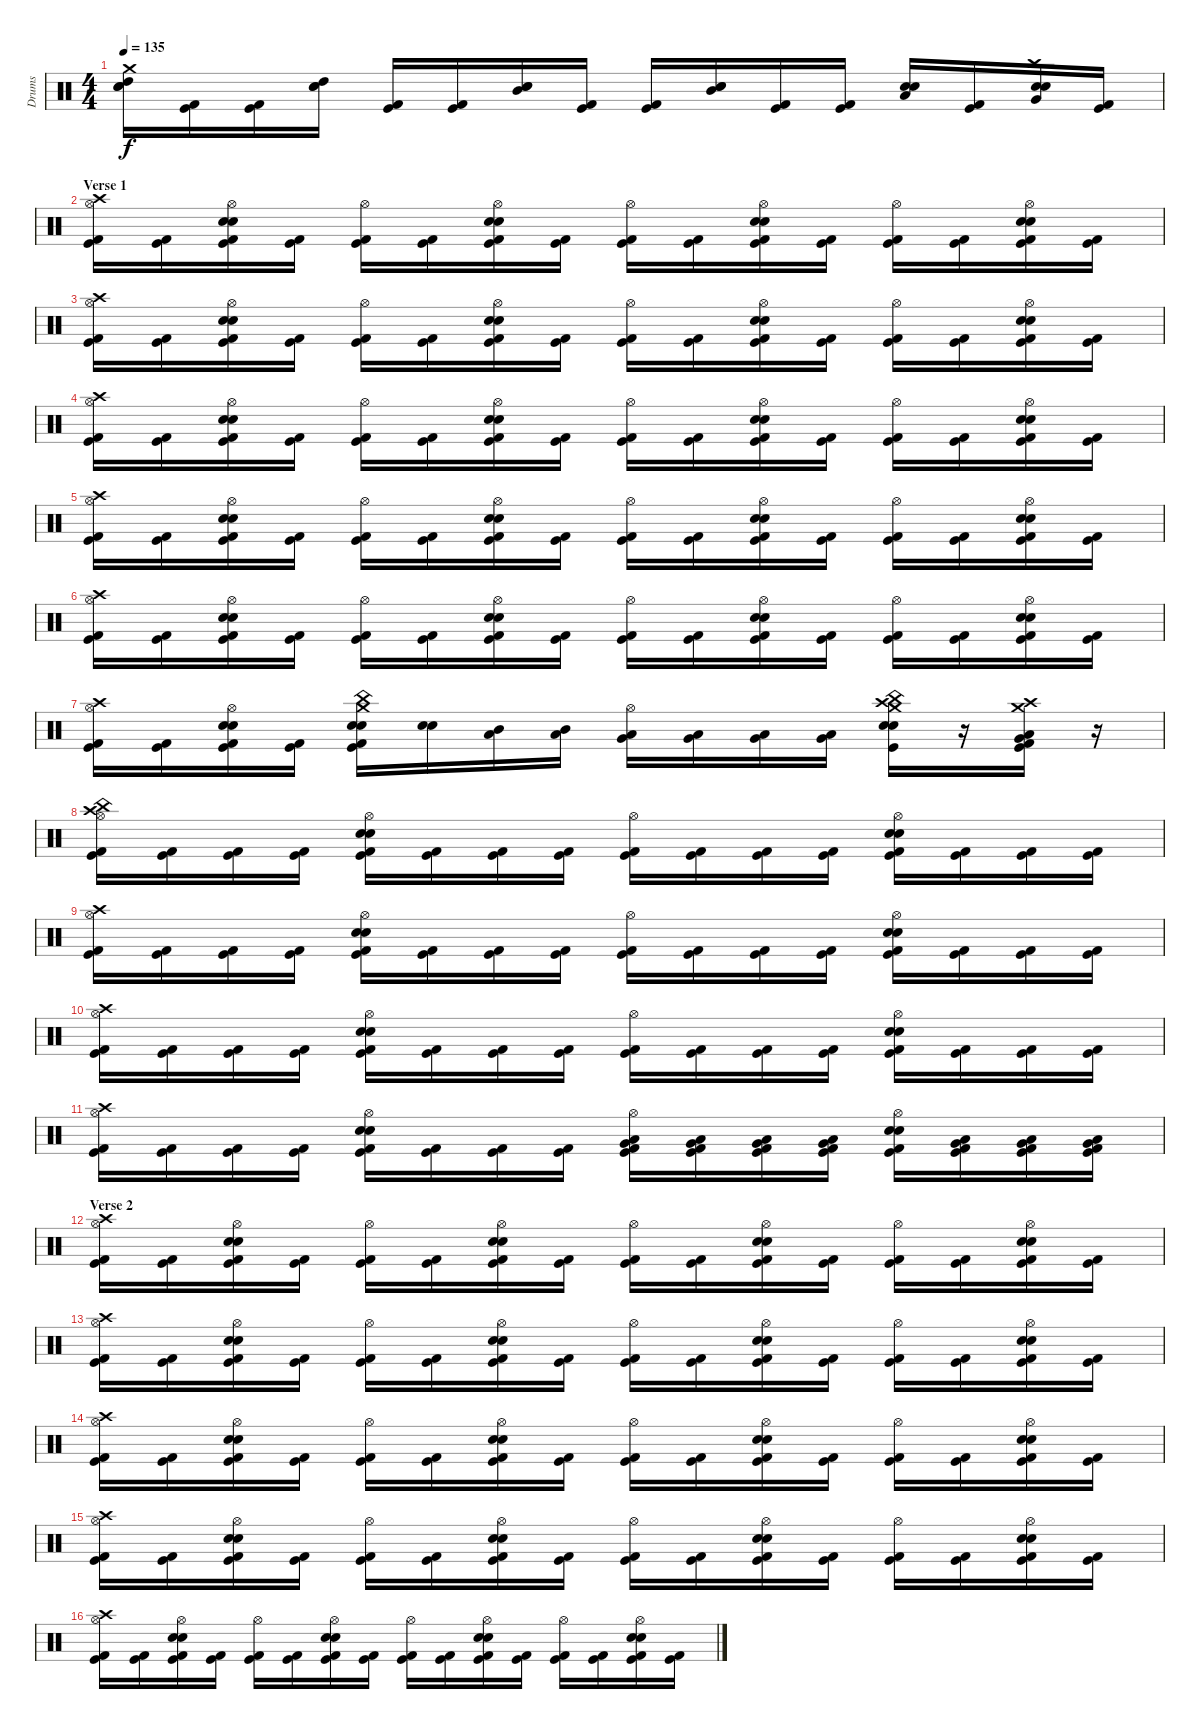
\track ("Drums" "Drums") {instrument percussion}
\staff {score}
\articulation defaults
\ts (4 4)
\tempo 135
\clef neutral
\ks c
("Crash medium (hit)" "High Tom (hit)" "Electric Snare (hit)" "Snare (hit) 2").16{dy f} ("Kick (hit) 2" "Kick (hit)").16 ("Kick (hit) 2" "Kick (hit)").16 ("High Tom (hit)" "Electric Snare (hit)" "Snare (hit) 2").16 ("Kick (hit)" "Kick (hit) 2").16 ("Kick (hit)" "Kick (hit) 2").16 ("Mid Tom (hit)" "Electric Snare (hit)" "Snare (hit) 2").16 ("Kick (hit) 2" "Kick (hit)").16 ("Kick (hit) 2" "Kick (hit)").16 ("Mid Tom (hit)" "Electric Snare (hit)" "Snare (hit) 2").16 ("Kick (hit) 2" "Kick (hit)").16 ("Kick (hit) 2" "Kick (hit)").16 ("Low Tom (hit)" "Electric Snare (hit)" "Snare (hit) 2").16 ("Kick (hit) 2" "Kick (hit)").16 ("Crash high (hit)" "Very Low Tom (hit)" "Electric Snare (hit)" "Snare (hit) 2").16 ("Kick (hit) 2" "Kick (hit)").16 |
\section ("" "Verse 1")
("Crash high (hit)" "Hi-Hat (open)" "Kick (hit) 2" "Kick (hit)").16 ("Kick (hit) 2" "Kick (hit)").16 ("Hi-Hat (open)" "Snare (hit) 2" "Electric Snare (hit)" "Kick (hit) 2" "Kick (hit)").16 ("Kick (hit) 2" "Kick (hit)").16 ("Hi-Hat (open)" "Kick (hit) 2" "Kick (hit)").16 ("Kick (hit) 2" "Kick (hit)").16 ("Hi-Hat (open)" "Snare (hit) 2" "Electric Snare (hit)" "Kick (hit) 2" "Kick (hit)").16 ("Kick (hit) 2" "Kick (hit)").16 ("Hi-Hat (open)" "Kick (hit) 2" "Kick (hit)").16 ("Kick (hit) 2" "Kick (hit)").16 ("Hi-Hat (open)" "Snare (hit) 2" "Electric Snare (hit)" "Kick (hit) 2" "Kick (hit)").16 ("Kick (hit) 2" "Kick (hit)").16 ("Hi-Hat (open)" "Kick (hit) 2" "Kick (hit)").16 ("Kick (hit) 2" "Kick (hit)").16 ("Hi-Hat (open)" "Snare (hit) 2" "Electric Snare (hit)" "Kick (hit) 2" "Kick (hit)").16 ("Kick (hit) 2" "Kick (hit)").16 |
("Crash high (hit)" "Hi-Hat (open)" "Kick (hit) 2" "Kick (hit)").16 ("Kick (hit) 2" "Kick (hit)").16 ("Hi-Hat (open)" "Snare (hit) 2" "Electric Snare (hit)" "Kick (hit) 2" "Kick (hit)").16 ("Kick (hit) 2" "Kick (hit)").16 ("Hi-Hat (open)" "Kick (hit) 2" "Kick (hit)").16 ("Kick (hit) 2" "Kick (hit)").16 ("Hi-Hat (open)" "Snare (hit) 2" "Electric Snare (hit)" "Kick (hit) 2" "Kick (hit)").16 ("Kick (hit) 2" "Kick (hit)").16 ("Hi-Hat (open)" "Kick (hit) 2" "Kick (hit)").16 ("Kick (hit) 2" "Kick (hit)").16 ("Hi-Hat (open)" "Snare (hit) 2" "Electric Snare (hit)" "Kick (hit) 2" "Kick (hit)").16 ("Kick (hit) 2" "Kick (hit)").16 ("Hi-Hat (open)" "Kick (hit) 2" "Kick (hit)").16 ("Kick (hit) 2" "Kick (hit)").16 ("Hi-Hat (open)" "Snare (hit) 2" "Electric Snare (hit)" "Kick (hit) 2" "Kick (hit)").16 ("Kick (hit) 2" "Kick (hit)").16 |
("Crash high (hit)" "Hi-Hat (open)" "Kick (hit) 2" "Kick (hit)").16 ("Kick (hit) 2" "Kick (hit)").16 ("Hi-Hat (open)" "Snare (hit) 2" "Electric Snare (hit)" "Kick (hit) 2" "Kick (hit)").16 ("Kick (hit) 2" "Kick (hit)").16 ("Hi-Hat (open)" "Kick (hit) 2" "Kick (hit)").16 ("Kick (hit) 2" "Kick (hit)").16 ("Hi-Hat (open)" "Snare (hit) 2" "Electric Snare (hit)" "Kick (hit) 2" "Kick (hit)").16 ("Kick (hit) 2" "Kick (hit)").16 ("Hi-Hat (open)" "Kick (hit) 2" "Kick (hit)").16 ("Kick (hit) 2" "Kick (hit)").16 ("Hi-Hat (open)" "Snare (hit) 2" "Electric Snare (hit)" "Kick (hit) 2" "Kick (hit)").16 ("Kick (hit) 2" "Kick (hit)").16 ("Hi-Hat (open)" "Kick (hit) 2" "Kick (hit)").16 ("Kick (hit) 2" "Kick (hit)").16 ("Hi-Hat (open)" "Snare (hit) 2" "Electric Snare (hit)" "Kick (hit) 2" "Kick (hit)").16 ("Kick (hit) 2" "Kick (hit)").16 |
("Crash high (hit)" "Hi-Hat (open)" "Kick (hit) 2" "Kick (hit)").16 ("Kick (hit) 2" "Kick (hit)").16 ("Hi-Hat (open)" "Snare (hit) 2" "Electric Snare (hit)" "Kick (hit) 2" "Kick (hit)").16 ("Kick (hit) 2" "Kick (hit)").16 ("Hi-Hat (open)" "Kick (hit) 2" "Kick (hit)").16 ("Kick (hit) 2" "Kick (hit)").16 ("Hi-Hat (open)" "Snare (hit) 2" "Electric Snare (hit)" "Kick (hit) 2" "Kick (hit)").16 ("Kick (hit) 2" "Kick (hit)").16 ("Hi-Hat (open)" "Kick (hit) 2" "Kick (hit)").16 ("Kick (hit) 2" "Kick (hit)").16 ("Hi-Hat (open)" "Snare (hit) 2" "Electric Snare (hit)" "Kick (hit) 2" "Kick (hit)").16 ("Kick (hit) 2" "Kick (hit)").16 ("Hi-Hat (open)" "Kick (hit) 2" "Kick (hit)").16 ("Kick (hit) 2" "Kick (hit)").16 ("Hi-Hat (open)" "Snare (hit) 2" "Electric Snare (hit)" "Kick (hit) 2" "Kick (hit)").16 ("Kick (hit) 2" "Kick (hit)").16 |
("Crash high (hit)" "Hi-Hat (open)" "Kick (hit) 2" "Kick (hit)").16 ("Kick (hit) 2" "Kick (hit)").16 ("Hi-Hat (open)" "Snare (hit) 2" "Electric Snare (hit)" "Kick (hit) 2" "Kick (hit)").16 ("Kick (hit) 2" "Kick (hit)").16 ("Hi-Hat (open)" "Kick (hit) 2" "Kick (hit)").16 ("Kick (hit) 2" "Kick (hit)").16 ("Hi-Hat (open)" "Snare (hit) 2" "Electric Snare (hit)" "Kick (hit) 2" "Kick (hit)").16 ("Kick (hit) 2" "Kick (hit)").16 ("Hi-Hat (open)" "Kick (hit) 2" "Kick (hit)").16 ("Kick (hit) 2" "Kick (hit)").16 ("Hi-Hat (open)" "Snare (hit) 2" "Electric Snare (hit)" "Kick (hit) 2" "Kick (hit)").16 ("Kick (hit) 2" "Kick (hit)").16 ("Hi-Hat (open)" "Kick (hit) 2" "Kick (hit)").16 ("Kick (hit) 2" "Kick (hit)").16 ("Hi-Hat (open)" "Snare (hit) 2" "Electric Snare (hit)" "Kick (hit) 2" "Kick (hit)").16 ("Kick (hit) 2" "Kick (hit)").16 |
("Crash high (hit)" "Hi-Hat (open)" "Kick (hit) 2" "Kick (hit)").16 ("Kick (hit) 2" "Kick (hit)").16 ("Hi-Hat (open)" "Snare (hit) 2" "Electric Snare (hit)" "Kick (hit) 2" "Kick (hit)").16 ("Kick (hit) 2" "Kick (hit)").16 ("Crash medium (hit)" "China (hit)" "Electric Snare (hit)" "Snare (hit) 2" "Kick (hit) 2" "Kick (hit)").16 ("Electric Snare (hit)" "Snare (hit) 2").16 ("Mid Tom (hit)" "Low Tom (hit)").16 ("Mid Tom (hit)" "Low Tom (hit)").16 ("Hi-Hat (open)" "Low Tom (hit)" "Very Low Tom (hit)").16 ("Low Tom (hit)" "Very Low Tom (hit)").16 ("Very Low Tom (hit)" "Low Floor Tom (hit)").16 ("Very Low Tom (hit)" "Low Floor Tom (hit)").16 ("Crash high (hit)" "China (hit)" "Electric Snare (hit)" "Snare (hit) 2" "Crash medium (hit)" "Kick (hit)").16 r.16 ("Crash medium (hit)" "Crash high (hit)" "Very Low Tom (hit)" "Low Tom (hit)" "Kick (hit)" "Kick (hit) 2").16 r.16 |
("Crash high (hit)" "Hi-Hat (open)" "China (hit)" "Kick (hit) 2" "Kick (hit)").16 ("Kick (hit) 2" "Kick (hit)").16 ("Kick (hit) 2" "Kick (hit)").16 ("Kick (hit) 2" "Kick (hit)").16 ("Hi-Hat (open)" "Electric Snare (hit)" "Snare (hit) 2" "Kick (hit) 2" "Kick (hit)").16 ("Kick (hit) 2" "Kick (hit)").16 ("Kick (hit) 2" "Kick (hit)").16 ("Kick (hit) 2" "Kick (hit)").16 ("Hi-Hat (open)" "Kick (hit) 2" "Kick (hit)").16 ("Kick (hit) 2" "Kick (hit)").16 ("Kick (hit) 2" "Kick (hit)").16 ("Kick (hit) 2" "Kick (hit)").16 ("Hi-Hat (open)" "Electric Snare (hit)" "Snare (hit) 2" "Kick (hit) 2" "Kick (hit)").16 ("Kick (hit) 2" "Kick (hit)").16 ("Kick (hit) 2" "Kick (hit)").16 ("Kick (hit) 2" "Kick (hit)").16 |
("Crash high (hit)" "Hi-Hat (open)" "Kick (hit) 2" "Kick (hit)").16 ("Kick (hit) 2" "Kick (hit)").16 ("Kick (hit) 2" "Kick (hit)").16 ("Kick (hit) 2" "Kick (hit)").16 ("Hi-Hat (open)" "Electric Snare (hit)" "Snare (hit) 2" "Kick (hit) 2" "Kick (hit)").16 ("Kick (hit) 2" "Kick (hit)").16 ("Kick (hit) 2" "Kick (hit)").16 ("Kick (hit) 2" "Kick (hit)").16 ("Hi-Hat (open)" "Kick (hit) 2" "Kick (hit)").16 ("Kick (hit) 2" "Kick (hit)").16 ("Kick (hit) 2" "Kick (hit)").16 ("Kick (hit) 2" "Kick (hit)").16 ("Hi-Hat (open)" "Electric Snare (hit)" "Snare (hit) 2" "Kick (hit) 2" "Kick (hit)").16 ("Kick (hit) 2" "Kick (hit)").16 ("Kick (hit) 2" "Kick (hit)").16 ("Kick (hit) 2" "Kick (hit)").16 |
("Crash high (hit)" "Hi-Hat (open)" "Kick (hit) 2" "Kick (hit)").16 ("Kick (hit) 2" "Kick (hit)").16 ("Kick (hit) 2" "Kick (hit)").16 ("Kick (hit) 2" "Kick (hit)").16 ("Hi-Hat (open)" "Electric Snare (hit)" "Snare (hit) 2" "Kick (hit) 2" "Kick (hit)").16 ("Kick (hit) 2" "Kick (hit)").16 ("Kick (hit) 2" "Kick (hit)").16 ("Kick (hit) 2" "Kick (hit)").16 ("Hi-Hat (open)" "Kick (hit) 2" "Kick (hit)").16 ("Kick (hit) 2" "Kick (hit)").16 ("Kick (hit) 2" "Kick (hit)").16 ("Kick (hit) 2" "Kick (hit)").16 ("Hi-Hat (open)" "Electric Snare (hit)" "Snare (hit) 2" "Kick (hit) 2" "Kick (hit)").16 ("Kick (hit) 2" "Kick (hit)").16 ("Kick (hit) 2" "Kick (hit)").16 ("Kick (hit) 2" "Kick (hit)").16 |
("Crash high (hit)" "Hi-Hat (open)" "Kick (hit) 2" "Kick (hit)").16 ("Kick (hit) 2" "Kick (hit)").16 ("Kick (hit) 2" "Kick (hit)").16 ("Kick (hit) 2" "Kick (hit)").16 ("Hi-Hat (open)" "Electric Snare (hit)" "Snare (hit) 2" "Kick (hit) 2" "Kick (hit)").16 ("Kick (hit) 2" "Kick (hit)").16 ("Kick (hit) 2" "Kick (hit)").16 ("Kick (hit) 2" "Kick (hit)").16 ("Hi-Hat (open)" "Low Tom (hit)" "Very Low Tom (hit)" "Kick (hit) 2" "Kick (hit)").16 ("Low Tom (hit)" "Very Low Tom (hit)" "Kick (hit) 2" "Kick (hit)").16 ("Low Tom (hit)" "Very Low Tom (hit)" "Kick (hit) 2" "Kick (hit)").16 ("Low Tom (hit)" "Very Low Tom (hit)" "Kick (hit) 2" "Kick (hit)").16 ("Hi-Hat (open)" "Electric Snare (hit)" "Snare (hit) 2" "Kick (hit) 2" "Kick (hit)").16 ("Low Tom (hit)" "Very Low Tom (hit)" "Kick (hit) 2" "Kick (hit)").16 ("Low Tom (hit)" "Very Low Tom (hit)" "Kick (hit) 2" "Kick (hit)").16 ("Low Tom (hit)" "Very Low Tom (hit)" "Kick (hit) 2" "Kick (hit)").16 |
\section ("" "Verse 2")
("Crash high (hit)" "Hi-Hat (open)" "Kick (hit) 2" "Kick (hit)").16 ("Kick (hit) 2" "Kick (hit)").16 ("Hi-Hat (open)" "Snare (hit) 2" "Electric Snare (hit)" "Kick (hit) 2" "Kick (hit)").16 ("Kick (hit) 2" "Kick (hit)").16 ("Hi-Hat (open)" "Kick (hit) 2" "Kick (hit)").16 ("Kick (hit) 2" "Kick (hit)").16 ("Hi-Hat (open)" "Snare (hit) 2" "Electric Snare (hit)" "Kick (hit) 2" "Kick (hit)").16 ("Kick (hit) 2" "Kick (hit)").16 ("Hi-Hat (open)" "Kick (hit) 2" "Kick (hit)").16 ("Kick (hit) 2" "Kick (hit)").16 ("Hi-Hat (open)" "Snare (hit) 2" "Electric Snare (hit)" "Kick (hit) 2" "Kick (hit)").16 ("Kick (hit) 2" "Kick (hit)").16 ("Hi-Hat (open)" "Kick (hit) 2" "Kick (hit)").16 ("Kick (hit) 2" "Kick (hit)").16 ("Hi-Hat (open)" "Snare (hit) 2" "Electric Snare (hit)" "Kick (hit) 2" "Kick (hit)").16 ("Kick (hit) 2" "Kick (hit)").16 |
("Crash high (hit)" "Hi-Hat (open)" "Kick (hit) 2" "Kick (hit)").16 ("Kick (hit) 2" "Kick (hit)").16 ("Hi-Hat (open)" "Snare (hit) 2" "Electric Snare (hit)" "Kick (hit) 2" "Kick (hit)").16 ("Kick (hit) 2" "Kick (hit)").16 ("Hi-Hat (open)" "Kick (hit) 2" "Kick (hit)").16 ("Kick (hit) 2" "Kick (hit)").16 ("Hi-Hat (open)" "Snare (hit) 2" "Electric Snare (hit)" "Kick (hit) 2" "Kick (hit)").16 ("Kick (hit) 2" "Kick (hit)").16 ("Hi-Hat (open)" "Kick (hit) 2" "Kick (hit)").16 ("Kick (hit) 2" "Kick (hit)").16 ("Hi-Hat (open)" "Snare (hit) 2" "Electric Snare (hit)" "Kick (hit) 2" "Kick (hit)").16 ("Kick (hit) 2" "Kick (hit)").16 ("Hi-Hat (open)" "Kick (hit) 2" "Kick (hit)").16 ("Kick (hit) 2" "Kick (hit)").16 ("Hi-Hat (open)" "Snare (hit) 2" "Electric Snare (hit)" "Kick (hit) 2" "Kick (hit)").16 ("Kick (hit) 2" "Kick (hit)").16 |
("Crash high (hit)" "Hi-Hat (open)" "Kick (hit) 2" "Kick (hit)").16 ("Kick (hit) 2" "Kick (hit)").16 ("Hi-Hat (open)" "Snare (hit) 2" "Electric Snare (hit)" "Kick (hit) 2" "Kick (hit)").16 ("Kick (hit) 2" "Kick (hit)").16 ("Hi-Hat (open)" "Kick (hit) 2" "Kick (hit)").16 ("Kick (hit) 2" "Kick (hit)").16 ("Hi-Hat (open)" "Snare (hit) 2" "Electric Snare (hit)" "Kick (hit) 2" "Kick (hit)").16 ("Kick (hit) 2" "Kick (hit)").16 ("Hi-Hat (open)" "Kick (hit) 2" "Kick (hit)").16 ("Kick (hit) 2" "Kick (hit)").16 ("Hi-Hat (open)" "Snare (hit) 2" "Electric Snare (hit)" "Kick (hit) 2" "Kick (hit)").16 ("Kick (hit) 2" "Kick (hit)").16 ("Hi-Hat (open)" "Kick (hit) 2" "Kick (hit)").16 ("Kick (hit) 2" "Kick (hit)").16 ("Hi-Hat (open)" "Snare (hit) 2" "Electric Snare (hit)" "Kick (hit) 2" "Kick (hit)").16 ("Kick (hit) 2" "Kick (hit)").16 |
("Crash high (hit)" "Hi-Hat (open)" "Kick (hit) 2" "Kick (hit)").16 ("Kick (hit) 2" "Kick (hit)").16 ("Hi-Hat (open)" "Snare (hit) 2" "Electric Snare (hit)" "Kick (hit) 2" "Kick (hit)").16 ("Kick (hit) 2" "Kick (hit)").16 ("Hi-Hat (open)" "Kick (hit) 2" "Kick (hit)").16 ("Kick (hit) 2" "Kick (hit)").16 ("Hi-Hat (open)" "Snare (hit) 2" "Electric Snare (hit)" "Kick (hit) 2" "Kick (hit)").16 ("Kick (hit) 2" "Kick (hit)").16 ("Hi-Hat (open)" "Kick (hit) 2" "Kick (hit)").16 ("Kick (hit) 2" "Kick (hit)").16 ("Hi-Hat (open)" "Snare (hit) 2" "Electric Snare (hit)" "Kick (hit) 2" "Kick (hit)").16 ("Kick (hit) 2" "Kick (hit)").16 ("Hi-Hat (open)" "Kick (hit) 2" "Kick (hit)").16 ("Kick (hit) 2" "Kick (hit)").16 ("Hi-Hat (open)" "Snare (hit) 2" "Electric Snare (hit)" "Kick (hit) 2" "Kick (hit)").16 ("Kick (hit) 2" "Kick (hit)").16 |
("Crash high (hit)" "Hi-Hat (open)" "Kick (hit) 2" "Kick (hit)").16 ("Kick (hit) 2" "Kick (hit)").16 ("Hi-Hat (open)" "Snare (hit) 2" "Electric Snare (hit)" "Kick (hit) 2" "Kick (hit)").16 ("Kick (hit) 2" "Kick (hit)").16 ("Hi-Hat (open)" "Kick (hit) 2" "Kick (hit)").16 ("Kick (hit) 2" "Kick (hit)").16 ("Hi-Hat (open)" "Snare (hit) 2" "Electric Snare (hit)" "Kick (hit) 2" "Kick (hit)").16 ("Kick (hit) 2" "Kick (hit)").16 ("Hi-Hat (open)" "Kick (hit) 2" "Kick (hit)").16 ("Kick (hit) 2" "Kick (hit)").16 ("Hi-Hat (open)" "Snare (hit) 2" "Electric Snare (hit)" "Kick (hit) 2" "Kick (hit)").16 ("Kick (hit) 2" "Kick (hit)").16 ("Hi-Hat (open)" "Kick (hit) 2" "Kick (hit)").16 ("Kick (hit) 2" "Kick (hit)").16 ("Hi-Hat (open)" "Snare (hit) 2" "Electric Snare (hit)" "Kick (hit) 2" "Kick (hit)").16 ("Kick (hit) 2" "Kick (hit)").16
